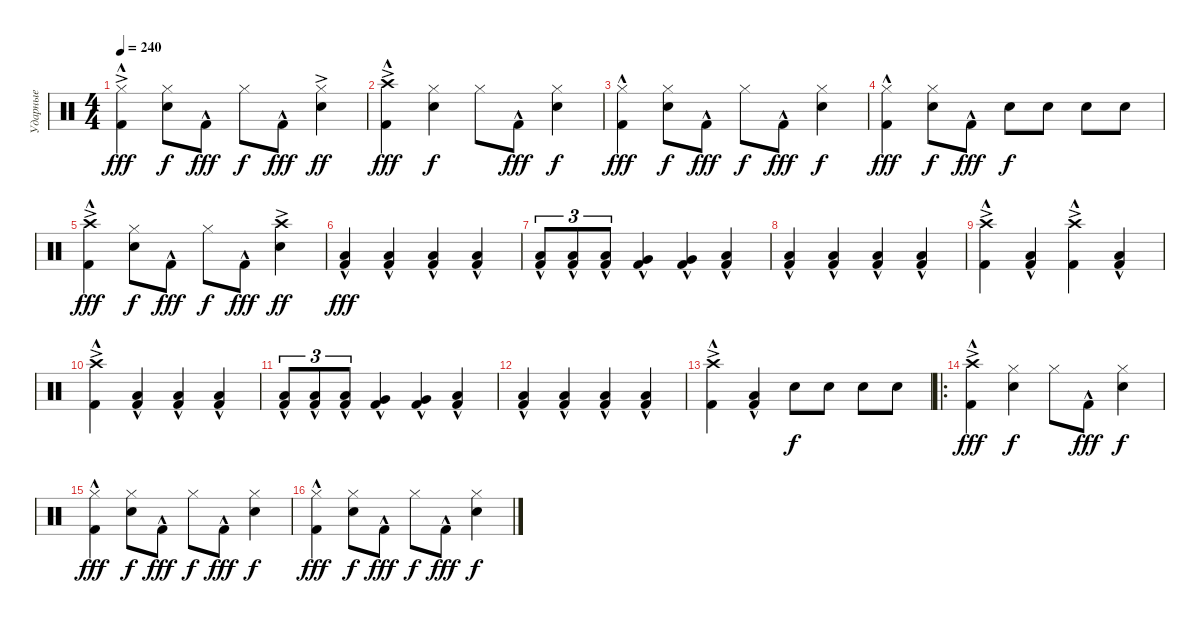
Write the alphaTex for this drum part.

\track ("Ударные" "Ударные") {instrument percussion}
\staff {score}
\articulation defaults
\ts (4 4)
\tempo 240
\clef neutral
\ks c
("Hi-Hat (closed)"{ac} "Kick (hit) 2"{hac}).4{dy fff} ("Hi-Hat (closed)" "Snare (hit) 2").8{dy f} "Kick (hit) 2"{hac}.8{dy fff} "Hi-Hat (closed)".8{dy f} "Kick (hit) 2"{hac}.8{dy fff} ("Hi-Hat (closed)"{ac} "Snare (hit) 2").4{dy ff} |
("Crash high (hit)"{ac} "Kick (hit) 2"{hac}).4{dy fff} ("Hi-Hat (closed)" "Snare (hit) 2").4{dy f} "Hi-Hat (closed)".8 "Kick (hit) 2"{hac}.8{dy fff} ("Hi-Hat (closed)" "Snare (hit) 2").4{dy f} |
("Hi-Hat (closed)" "Kick (hit) 2"{hac}).4{dy fff} ("Hi-Hat (closed)" "Snare (hit) 2").8{dy f} "Kick (hit) 2"{hac}.8{dy fff} "Hi-Hat (closed)".8{dy f} "Kick (hit) 2"{hac}.8{dy fff} ("Hi-Hat (closed)" "Snare (hit) 2").4{dy f} |
("Hi-Hat (closed)" "Kick (hit) 2"{hac}).4{dy fff} ("Hi-Hat (closed)" "Snare (hit) 2").8{dy f} "Kick (hit) 2"{hac}.8{dy fff} "Snare (hit) 2".8{dy f} "Snare (hit) 2".8 "Snare (hit) 2".8 "Snare (hit) 2".8 |
("Crash high (hit)"{ac} "Kick (hit) 2"{hac}).4{dy fff} ("Hi-Hat (closed)" "Snare (hit) 2").8{dy f} "Kick (hit) 2"{hac}.8{dy fff} "Hi-Hat (closed)".8{dy f} "Kick (hit) 2"{hac}.8{dy fff} ("Crash high (hit)"{ac} "Snare (hit) 2").4{dy ff} |
("Low Floor Tom (hit)"{hac} "Kick (hit) 2"{hac}).4{dy fff} ("Low Floor Tom (hit)"{hac} "Kick (hit) 2"{hac}).4 ("Low Floor Tom (hit)"{hac} "Kick (hit) 2"{hac}).4 ("Low Floor Tom (hit)"{hac} "Kick (hit) 2"{hac}).4 |
("Low Tom (hit)"{hac} "Kick (hit) 2"{hac}).8{tu (3 2)} ("Low Tom (hit)"{hac} "Kick (hit) 2"{hac}).8{tu (3 2)} ("Low Tom (hit)"{hac} "Kick (hit) 2"{hac}).8{tu (3 2)} ("Very Low Tom (hit)"{hac} "Kick (hit) 2"{hac}).4 ("Very Low Tom (hit)"{hac} "Kick (hit) 2"{hac}).4 ("Low Floor Tom (hit)"{hac} "Kick (hit) 2"{hac}).4 |
("Low Floor Tom (hit)"{hac} "Kick (hit) 2"{hac}).4 ("Low Floor Tom (hit)"{hac} "Kick (hit) 2"{hac}).4 ("Low Floor Tom (hit)"{hac} "Kick (hit) 2"{hac}).4 ("Low Floor Tom (hit)"{hac} "Kick (hit) 2"{hac}).4 |
("Crash high (hit)"{ac} "Kick (hit) 2"{hac}).4 ("Low Floor Tom (hit)"{hac} "Kick (hit) 2"{hac}).4 ("Crash high (hit)"{ac} "Kick (hit) 2"{hac}).4 ("Low Floor Tom (hit)"{hac} "Kick (hit) 2"{hac}).4 |
("Crash high (hit)"{ac} "Kick (hit) 2"{hac}).4 ("Low Floor Tom (hit)"{hac} "Kick (hit) 2"{hac}).4 ("Low Floor Tom (hit)"{hac} "Kick (hit) 2"{hac}).4 ("Low Floor Tom (hit)"{hac} "Kick (hit) 2"{hac}).4 |
("Low Tom (hit)"{hac} "Kick (hit) 2"{hac}).8{tu (3 2)} ("Low Tom (hit)"{hac} "Kick (hit) 2"{hac}).8{tu (3 2)} ("Low Tom (hit)"{hac} "Kick (hit) 2"{hac}).8{tu (3 2)} ("Very Low Tom (hit)"{hac} "Kick (hit) 2"{hac}).4 ("Very Low Tom (hit)"{hac} "Kick (hit) 2"{hac}).4 ("Low Floor Tom (hit)"{hac} "Kick (hit) 2"{hac}).4 |
("Low Floor Tom (hit)"{hac} "Kick (hit) 2"{hac}).4 ("Low Floor Tom (hit)"{hac} "Kick (hit) 2"{hac}).4 ("Low Floor Tom (hit)"{hac} "Kick (hit) 2"{hac}).4 ("Low Floor Tom (hit)"{hac} "Kick (hit) 2"{hac}).4 |
("Crash high (hit)"{ac} "Kick (hit) 2"{hac}).4 ("Low Floor Tom (hit)"{hac} "Kick (hit) 2"{hac}).4 "Snare (hit) 2".8{dy f} "Snare (hit) 2".8 "Snare (hit) 2".8 "Snare (hit) 2".8 |
\ro
("Crash high (hit)"{ac} "Kick (hit) 2"{hac}).4{dy fff} ("Hi-Hat (closed)" "Snare (hit) 2").4{dy f} "Hi-Hat (closed)".8 "Kick (hit) 2"{hac}.8{dy fff} ("Hi-Hat (closed)" "Snare (hit) 2").4{dy f} |
("Hi-Hat (closed)" "Kick (hit) 2"{hac}).4{dy fff} ("Hi-Hat (closed)" "Snare (hit) 2").8{dy f} "Kick (hit) 2"{hac}.8{dy fff} "Hi-Hat (closed)".8{dy f} "Kick (hit) 2"{hac}.8{dy fff} ("Hi-Hat (closed)" "Snare (hit) 2").4{dy f} |
("Hi-Hat (closed)" "Kick (hit) 2"{hac}).4{dy fff} ("Hi-Hat (closed)" "Snare (hit) 2").8{dy f} "Kick (hit) 2"{hac}.8{dy fff} "Hi-Hat (closed)".8{dy f} "Kick (hit) 2"{hac}.8{dy fff} ("Hi-Hat (closed)" "Snare (hit) 2").4{dy f}
